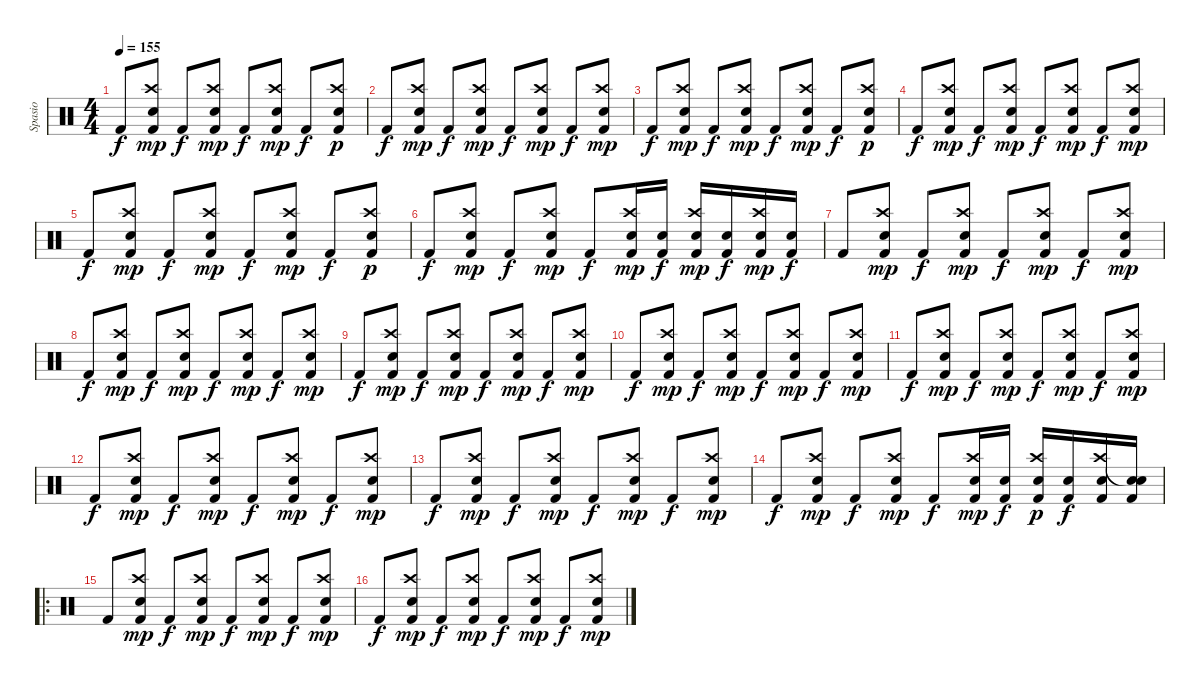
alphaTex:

\track ("Spasio" "Spasio") {instrument percussion}
\staff {score}
\articulation defaults
\ts (4 4)
\tempo 155
\clef neutral
\ks c "Kick (hit) 2".8{dy f}
("Crash high (hit)" "Electric Snare (hit)" "Kick (hit) 2").8{dy mp} "Kick (hit) 2".8{dy f} ("Crash high (hit)" "Electric Snare (hit)" "Kick (hit) 2").8{dy mp} "Kick (hit) 2".8{dy f} ("Crash high (hit)" "Electric Snare (hit)" "Kick (hit) 2").8{dy mp} "Kick (hit) 2".8{dy f} ("Crash high (hit)" "Electric Snare (hit)" "Kick (hit) 2").8{dy p} |
"Kick (hit) 2".8{dy f} ("Crash high (hit)" "Electric Snare (hit)" "Kick (hit) 2").8{dy mp} "Kick (hit) 2".8{dy f} ("Crash high (hit)" "Electric Snare (hit)" "Kick (hit) 2").8{dy mp} "Kick (hit) 2".8{dy f} ("Crash high (hit)" "Electric Snare (hit)" "Kick (hit) 2").8{dy mp} "Kick (hit) 2".8{dy f} ("Crash high (hit)" "Electric Snare (hit)" "Kick (hit) 2").8{dy mp} |
"Kick (hit) 2".8{dy f} ("Crash high (hit)" "Electric Snare (hit)" "Kick (hit) 2").8{dy mp} "Kick (hit) 2".8{dy f} ("Crash high (hit)" "Electric Snare (hit)" "Kick (hit) 2").8{dy mp} "Kick (hit) 2".8{dy f} ("Crash high (hit)" "Electric Snare (hit)" "Kick (hit) 2").8{dy mp} "Kick (hit) 2".8{dy f} ("Crash high (hit)" "Electric Snare (hit)" "Kick (hit) 2").8{dy p} |
"Kick (hit) 2".8{dy f} ("Crash high (hit)" "Electric Snare (hit)" "Kick (hit) 2").8{dy mp} "Kick (hit) 2".8{dy f} ("Crash high (hit)" "Electric Snare (hit)" "Kick (hit) 2").8{dy mp} "Kick (hit) 2".8{dy f} ("Crash high (hit)" "Electric Snare (hit)" "Kick (hit) 2").8{dy mp} "Kick (hit) 2".8{dy f} ("Crash high (hit)" "Electric Snare (hit)" "Kick (hit) 2").8{dy mp} |
"Kick (hit) 2".8{dy f} ("Crash high (hit)" "Electric Snare (hit)" "Kick (hit) 2").8{dy mp} "Kick (hit) 2".8{dy f} ("Crash high (hit)" "Electric Snare (hit)" "Kick (hit) 2").8{dy mp} "Kick (hit) 2".8{dy f} ("Crash high (hit)" "Electric Snare (hit)" "Kick (hit) 2").8{dy mp} "Kick (hit) 2".8{dy f} ("Crash high (hit)" "Electric Snare (hit)" "Kick (hit) 2").8{dy p} |
"Kick (hit) 2".8{dy f} ("Crash high (hit)" "Electric Snare (hit)" "Kick (hit) 2").8{dy mp} "Kick (hit) 2".8{dy f} ("Crash high (hit)" "Electric Snare (hit)" "Kick (hit) 2").8{dy mp} "Kick (hit) 2".8{dy f} ("Crash high (hit)" "Electric Snare (hit)" "Kick (hit) 2").16{dy mp} ("Electric Snare (hit)" "Kick (hit) 2").16{dy f} ("Crash high (hit)" "Electric Snare (hit)" "Kick (hit) 2").16{dy mp} ("Electric Snare (hit)" "Kick (hit) 2").16{dy f} ("Crash high (hit)" "Electric Snare (hit)" "Kick (hit) 2").16{dy mp} ("Electric Snare (hit)" "Kick (hit) 2").16{dy f} |
"Kick (hit) 2".8 ("Crash high (hit)" "Electric Snare (hit)" "Kick (hit) 2").8{dy mp} "Kick (hit) 2".8{dy f} ("Crash high (hit)" "Electric Snare (hit)" "Kick (hit) 2").8{dy mp} "Kick (hit) 2".8{dy f} ("Crash high (hit)" "Electric Snare (hit)" "Kick (hit) 2").8{dy mp} "Kick (hit) 2".8{dy f} ("Crash high (hit)" "Electric Snare (hit)" "Kick (hit) 2").8{dy mp} |
"Kick (hit) 2".8{dy f} ("Crash high (hit)" "Electric Snare (hit)" "Kick (hit) 2").8{dy mp} "Kick (hit) 2".8{dy f} ("Crash high (hit)" "Electric Snare (hit)" "Kick (hit) 2").8{dy mp} "Kick (hit) 2".8{dy f} ("Crash high (hit)" "Electric Snare (hit)" "Kick (hit) 2").8{dy mp} "Kick (hit) 2".8{dy f} ("Crash high (hit)" "Electric Snare (hit)" "Kick (hit) 2").8{dy mp} |
"Kick (hit) 2".8{dy f} ("Crash high (hit)" "Electric Snare (hit)" "Kick (hit) 2").8{dy mp} "Kick (hit) 2".8{dy f} ("Crash high (hit)" "Electric Snare (hit)" "Kick (hit) 2").8{dy mp} "Kick (hit) 2".8{dy f} ("Crash high (hit)" "Electric Snare (hit)" "Kick (hit) 2").8{dy mp} "Kick (hit) 2".8{dy f} ("Crash high (hit)" "Electric Snare (hit)" "Kick (hit) 2").8{dy mp} |
"Kick (hit) 2".8{dy f} ("Crash high (hit)" "Electric Snare (hit)" "Kick (hit) 2").8{dy mp} "Kick (hit) 2".8{dy f} ("Crash high (hit)" "Electric Snare (hit)" "Kick (hit) 2").8{dy mp} "Kick (hit) 2".8{dy f} ("Crash high (hit)" "Electric Snare (hit)" "Kick (hit) 2").8{dy mp} "Kick (hit) 2".8{dy f} ("Crash high (hit)" "Electric Snare (hit)" "Kick (hit) 2").8{dy mp} |
"Kick (hit) 2".8{dy f} ("Crash high (hit)" "Electric Snare (hit)" "Kick (hit) 2").8{dy mp} "Kick (hit) 2".8{dy f} ("Crash high (hit)" "Electric Snare (hit)" "Kick (hit) 2").8{dy mp} "Kick (hit) 2".8{dy f} ("Crash high (hit)" "Electric Snare (hit)" "Kick (hit) 2").8{dy mp} "Kick (hit) 2".8{dy f} ("Crash high (hit)" "Electric Snare (hit)" "Kick (hit) 2").8{dy mp} |
"Kick (hit) 2".8{dy f} ("Crash high (hit)" "Electric Snare (hit)" "Kick (hit) 2").8{dy mp} "Kick (hit) 2".8{dy f} ("Crash high (hit)" "Electric Snare (hit)" "Kick (hit) 2").8{dy mp} "Kick (hit) 2".8{dy f} ("Crash high (hit)" "Electric Snare (hit)" "Kick (hit) 2").8{dy mp} "Kick (hit) 2".8{dy f} ("Crash high (hit)" "Electric Snare (hit)" "Kick (hit) 2").8{dy mp} |
"Kick (hit) 2".8{dy f} ("Crash high (hit)" "Electric Snare (hit)" "Kick (hit) 2").8{dy mp} "Kick (hit) 2".8{dy f} ("Crash high (hit)" "Electric Snare (hit)" "Kick (hit) 2").8{dy mp} "Kick (hit) 2".8{dy f} ("Crash high (hit)" "Electric Snare (hit)" "Kick (hit) 2").8{dy mp} "Kick (hit) 2".8{dy f} ("Crash high (hit)" "Electric Snare (hit)" "Kick (hit) 2").8{dy mp} |
"Kick (hit) 2".8{dy f} ("Crash high (hit)" "Electric Snare (hit)" "Kick (hit) 2").8{dy mp} "Kick (hit) 2".8{dy f} ("Crash high (hit)" "Electric Snare (hit)" "Kick (hit) 2").8{dy mp} "Kick (hit) 2".8{dy f} ("Crash high (hit)" "Electric Snare (hit)" "Kick (hit) 2").16{dy mp} ("Electric Snare (hit)" "Kick (hit) 2").16{dy f} ("Crash high (hit)" "Electric Snare (hit)" "Kick (hit) 2").16{dy p} ("Electric Snare (hit)" "Kick (hit) 2").16{dy f} ("Crash high (hit)" "Electric Snare (hit)" "Kick (hit) 2").16 ("Snare (hit)"{t} "Electric Snare (hit)" "Kick (hit) 2").16 |
\ro "Kick (hit) 2".8
("Crash high (hit)" "Electric Snare (hit)" "Kick (hit) 2").8{dy mp} "Kick (hit) 2".8{dy f} ("Crash high (hit)" "Electric Snare (hit)" "Kick (hit) 2").8{dy mp} "Kick (hit) 2".8{dy f} ("Crash high (hit)" "Electric Snare (hit)" "Kick (hit) 2").8{dy mp} "Kick (hit) 2".8{dy f} ("Crash high (hit)" "Electric Snare (hit)" "Kick (hit) 2").8{dy mp} |
"Kick (hit) 2".8{dy f} ("Crash high (hit)" "Electric Snare (hit)" "Kick (hit) 2").8{dy mp} "Kick (hit) 2".8{dy f} ("Crash high (hit)" "Electric Snare (hit)" "Kick (hit) 2").8{dy mp} "Kick (hit) 2".8{dy f} ("Crash high (hit)" "Electric Snare (hit)" "Kick (hit) 2").8{dy mp} "Kick (hit) 2".8{dy f} ("Crash high (hit)" "Electric Snare (hit)" "Kick (hit) 2").8{dy mp}
